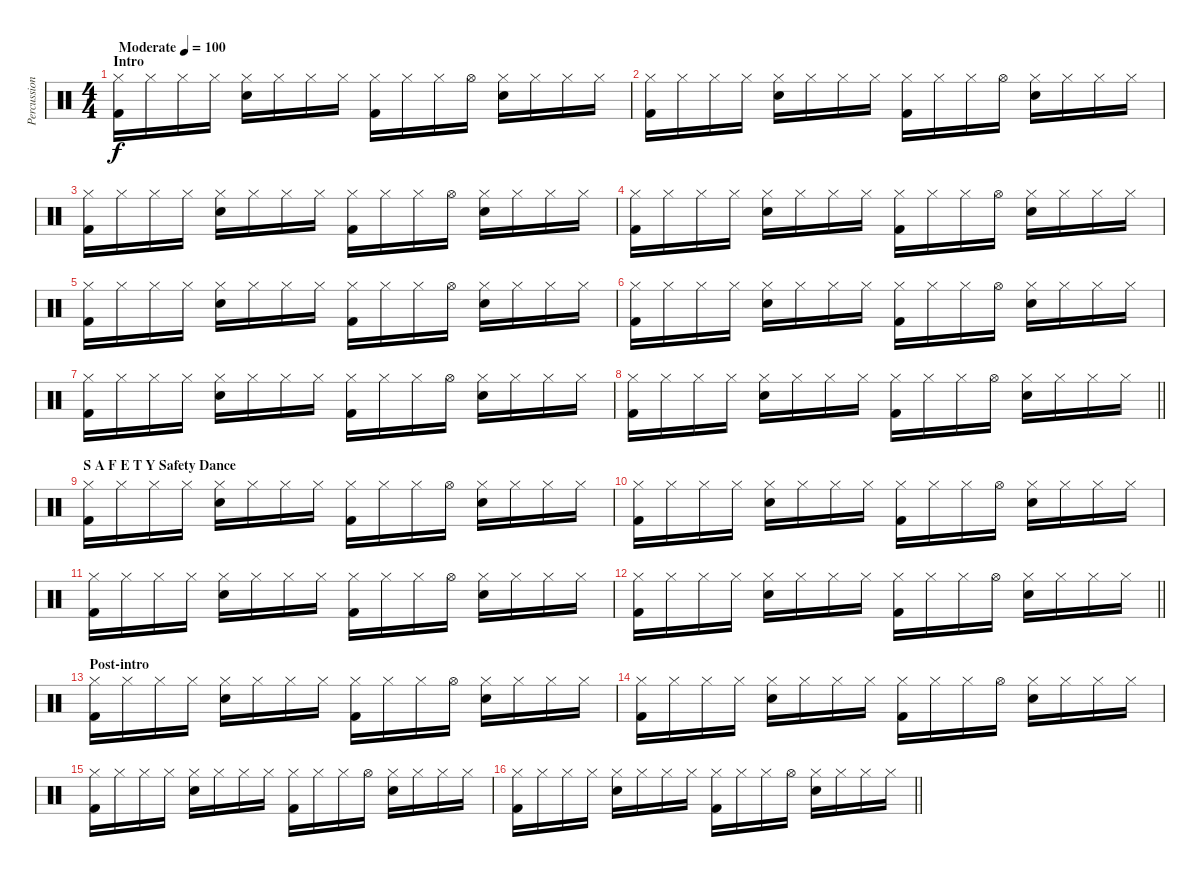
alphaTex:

\track ("Percussion" "Percussion") {instrument percussion}
\staff {score}
\articulation defaults
\ts (4 4)
\section ("" "Intro")
\tempo (100 "Moderate")
\clef neutral
\ks c
("Kick (hit) 2" "Hi-Hat (closed)").16{dy f} "Hi-Hat (closed)".16 "Hi-Hat (closed)".16 "Hi-Hat (closed)".16 ("Electric Snare (hit)" "Hi-Hat (closed)").16 "Hi-Hat (closed)".16 "Hi-Hat (closed)".16 "Hi-Hat (closed)".16 ("Kick (hit) 2" "Hi-Hat (closed)").16 "Hi-Hat (closed)".16 "Hi-Hat (closed)".16 "Hi-Hat (open)".16 ("Hi-Hat (closed)" "Electric Snare (hit)").16 "Hi-Hat (closed)".16 "Hi-Hat (closed)".16 "Hi-Hat (closed)".16 |
("Kick (hit) 2" "Hi-Hat (closed)").16 "Hi-Hat (closed)".16 "Hi-Hat (closed)".16 "Hi-Hat (closed)".16 ("Electric Snare (hit)" "Hi-Hat (closed)").16 "Hi-Hat (closed)".16 "Hi-Hat (closed)".16 "Hi-Hat (closed)".16 ("Kick (hit) 2" "Hi-Hat (closed)").16 "Hi-Hat (closed)".16 "Hi-Hat (closed)".16 "Hi-Hat (open)".16 ("Hi-Hat (closed)" "Electric Snare (hit)").16 "Hi-Hat (closed)".16 "Hi-Hat (closed)".16 "Hi-Hat (closed)".16 |
("Kick (hit) 2" "Hi-Hat (closed)").16 "Hi-Hat (closed)".16 "Hi-Hat (closed)".16 "Hi-Hat (closed)".16 ("Electric Snare (hit)" "Hi-Hat (closed)").16 "Hi-Hat (closed)".16 "Hi-Hat (closed)".16 "Hi-Hat (closed)".16 ("Kick (hit) 2" "Hi-Hat (closed)").16 "Hi-Hat (closed)".16 "Hi-Hat (closed)".16 "Hi-Hat (open)".16 ("Hi-Hat (closed)" "Electric Snare (hit)").16 "Hi-Hat (closed)".16 "Hi-Hat (closed)".16 "Hi-Hat (closed)".16 |
("Kick (hit) 2" "Hi-Hat (closed)").16 "Hi-Hat (closed)".16 "Hi-Hat (closed)".16 "Hi-Hat (closed)".16 ("Electric Snare (hit)" "Hi-Hat (closed)").16 "Hi-Hat (closed)".16 "Hi-Hat (closed)".16 "Hi-Hat (closed)".16 ("Kick (hit) 2" "Hi-Hat (closed)").16 "Hi-Hat (closed)".16 "Hi-Hat (closed)".16 "Hi-Hat (open)".16 ("Hi-Hat (closed)" "Electric Snare (hit)").16 "Hi-Hat (closed)".16 "Hi-Hat (closed)".16 "Hi-Hat (closed)".16 |
("Kick (hit) 2" "Hi-Hat (closed)").16 "Hi-Hat (closed)".16 "Hi-Hat (closed)".16 "Hi-Hat (closed)".16 ("Electric Snare (hit)" "Hi-Hat (closed)").16 "Hi-Hat (closed)".16 "Hi-Hat (closed)".16 "Hi-Hat (closed)".16 ("Kick (hit) 2" "Hi-Hat (closed)").16 "Hi-Hat (closed)".16 "Hi-Hat (closed)".16 "Hi-Hat (open)".16 ("Hi-Hat (closed)" "Electric Snare (hit)").16 "Hi-Hat (closed)".16 "Hi-Hat (closed)".16 "Hi-Hat (closed)".16 |
("Kick (hit) 2" "Hi-Hat (closed)").16 "Hi-Hat (closed)".16 "Hi-Hat (closed)".16 "Hi-Hat (closed)".16 ("Electric Snare (hit)" "Hi-Hat (closed)").16 "Hi-Hat (closed)".16 "Hi-Hat (closed)".16 "Hi-Hat (closed)".16 ("Kick (hit) 2" "Hi-Hat (closed)").16 "Hi-Hat (closed)".16 "Hi-Hat (closed)".16 "Hi-Hat (open)".16 ("Hi-Hat (closed)" "Electric Snare (hit)").16 "Hi-Hat (closed)".16 "Hi-Hat (closed)".16 "Hi-Hat (closed)".16 |
("Kick (hit) 2" "Hi-Hat (closed)").16 "Hi-Hat (closed)".16 "Hi-Hat (closed)".16 "Hi-Hat (closed)".16 ("Electric Snare (hit)" "Hi-Hat (closed)").16 "Hi-Hat (closed)".16 "Hi-Hat (closed)".16 "Hi-Hat (closed)".16 ("Kick (hit) 2" "Hi-Hat (closed)").16 "Hi-Hat (closed)".16 "Hi-Hat (closed)".16 "Hi-Hat (open)".16 ("Hi-Hat (closed)" "Electric Snare (hit)").16 "Hi-Hat (closed)".16 "Hi-Hat (closed)".16 "Hi-Hat (closed)".16 |
\barLineRight lightlight
("Kick (hit) 2" "Hi-Hat (closed)").16 "Hi-Hat (closed)".16 "Hi-Hat (closed)".16 "Hi-Hat (closed)".16 ("Electric Snare (hit)" "Hi-Hat (closed)").16 "Hi-Hat (closed)".16 "Hi-Hat (closed)".16 "Hi-Hat (closed)".16 ("Kick (hit) 2" "Hi-Hat (closed)").16 "Hi-Hat (closed)".16 "Hi-Hat (closed)".16 "Hi-Hat (open)".16 ("Hi-Hat (closed)" "Electric Snare (hit)").16 "Hi-Hat (closed)".16 "Hi-Hat (closed)".16 "Hi-Hat (closed)".16 |
\section ("" "S A F E T Y Safety Dance")
("Kick (hit) 2" "Hi-Hat (closed)").16 "Hi-Hat (closed)".16 "Hi-Hat (closed)".16 "Hi-Hat (closed)".16 ("Electric Snare (hit)" "Hi-Hat (closed)").16 "Hi-Hat (closed)".16 "Hi-Hat (closed)".16 "Hi-Hat (closed)".16 ("Kick (hit) 2" "Hi-Hat (closed)").16 "Hi-Hat (closed)".16 "Hi-Hat (closed)".16 "Hi-Hat (open)".16 ("Hi-Hat (closed)" "Electric Snare (hit)").16 "Hi-Hat (closed)".16 "Hi-Hat (closed)".16 "Hi-Hat (closed)".16 |
("Kick (hit) 2" "Hi-Hat (closed)").16 "Hi-Hat (closed)".16 "Hi-Hat (closed)".16 "Hi-Hat (closed)".16 ("Electric Snare (hit)" "Hi-Hat (closed)").16 "Hi-Hat (closed)".16 "Hi-Hat (closed)".16 "Hi-Hat (closed)".16 ("Kick (hit) 2" "Hi-Hat (closed)").16 "Hi-Hat (closed)".16 "Hi-Hat (closed)".16 "Hi-Hat (open)".16 ("Hi-Hat (closed)" "Electric Snare (hit)").16 "Hi-Hat (closed)".16 "Hi-Hat (closed)".16 "Hi-Hat (closed)".16 |
("Kick (hit) 2" "Hi-Hat (closed)").16 "Hi-Hat (closed)".16 "Hi-Hat (closed)".16 "Hi-Hat (closed)".16 ("Electric Snare (hit)" "Hi-Hat (closed)").16 "Hi-Hat (closed)".16 "Hi-Hat (closed)".16 "Hi-Hat (closed)".16 ("Kick (hit) 2" "Hi-Hat (closed)").16 "Hi-Hat (closed)".16 "Hi-Hat (closed)".16 "Hi-Hat (open)".16 ("Hi-Hat (closed)" "Electric Snare (hit)").16 "Hi-Hat (closed)".16 "Hi-Hat (closed)".16 "Hi-Hat (closed)".16 |
\barLineRight lightlight
("Kick (hit) 2" "Hi-Hat (closed)").16 "Hi-Hat (closed)".16 "Hi-Hat (closed)".16 "Hi-Hat (closed)".16 ("Electric Snare (hit)" "Hi-Hat (closed)").16 "Hi-Hat (closed)".16 "Hi-Hat (closed)".16 "Hi-Hat (closed)".16 ("Kick (hit) 2" "Hi-Hat (closed)").16 "Hi-Hat (closed)".16 "Hi-Hat (closed)".16 "Hi-Hat (open)".16 ("Hi-Hat (closed)" "Electric Snare (hit)").16 "Hi-Hat (closed)".16 "Hi-Hat (closed)".16 "Hi-Hat (closed)".16 |
\section ("" "Post-intro")
("Kick (hit) 2" "Hi-Hat (closed)").16 "Hi-Hat (closed)".16 "Hi-Hat (closed)".16 "Hi-Hat (closed)".16 ("Electric Snare (hit)" "Hi-Hat (closed)").16 "Hi-Hat (closed)".16 "Hi-Hat (closed)".16 "Hi-Hat (closed)".16 ("Kick (hit) 2" "Hi-Hat (closed)").16 "Hi-Hat (closed)".16 "Hi-Hat (closed)".16 "Hi-Hat (open)".16 ("Hi-Hat (closed)" "Electric Snare (hit)").16 "Hi-Hat (closed)".16 "Hi-Hat (closed)".16 "Hi-Hat (closed)".16 |
("Kick (hit) 2" "Hi-Hat (closed)").16 "Hi-Hat (closed)".16 "Hi-Hat (closed)".16 "Hi-Hat (closed)".16 ("Electric Snare (hit)" "Hi-Hat (closed)").16 "Hi-Hat (closed)".16 "Hi-Hat (closed)".16 "Hi-Hat (closed)".16 ("Kick (hit) 2" "Hi-Hat (closed)").16 "Hi-Hat (closed)".16 "Hi-Hat (closed)".16 "Hi-Hat (open)".16 ("Hi-Hat (closed)" "Electric Snare (hit)").16 "Hi-Hat (closed)".16 "Hi-Hat (closed)".16 "Hi-Hat (closed)".16 |
("Kick (hit) 2" "Hi-Hat (closed)").16 "Hi-Hat (closed)".16 "Hi-Hat (closed)".16 "Hi-Hat (closed)".16 ("Electric Snare (hit)" "Hi-Hat (closed)").16 "Hi-Hat (closed)".16 "Hi-Hat (closed)".16 "Hi-Hat (closed)".16 ("Kick (hit) 2" "Hi-Hat (closed)").16 "Hi-Hat (closed)".16 "Hi-Hat (closed)".16 "Hi-Hat (open)".16 ("Hi-Hat (closed)" "Electric Snare (hit)").16 "Hi-Hat (closed)".16 "Hi-Hat (closed)".16 "Hi-Hat (closed)".16 |
\barLineRight lightlight
("Kick (hit) 2" "Hi-Hat (closed)").16 "Hi-Hat (closed)".16 "Hi-Hat (closed)".16 "Hi-Hat (closed)".16 ("Electric Snare (hit)" "Hi-Hat (closed)").16 "Hi-Hat (closed)".16 "Hi-Hat (closed)".16 "Hi-Hat (closed)".16 ("Kick (hit) 2" "Hi-Hat (closed)").16 "Hi-Hat (closed)".16 "Hi-Hat (closed)".16 "Hi-Hat (open)".16 ("Hi-Hat (closed)" "Electric Snare (hit)").16 "Hi-Hat (closed)".16 "Hi-Hat (closed)".16 "Hi-Hat (closed)".16
